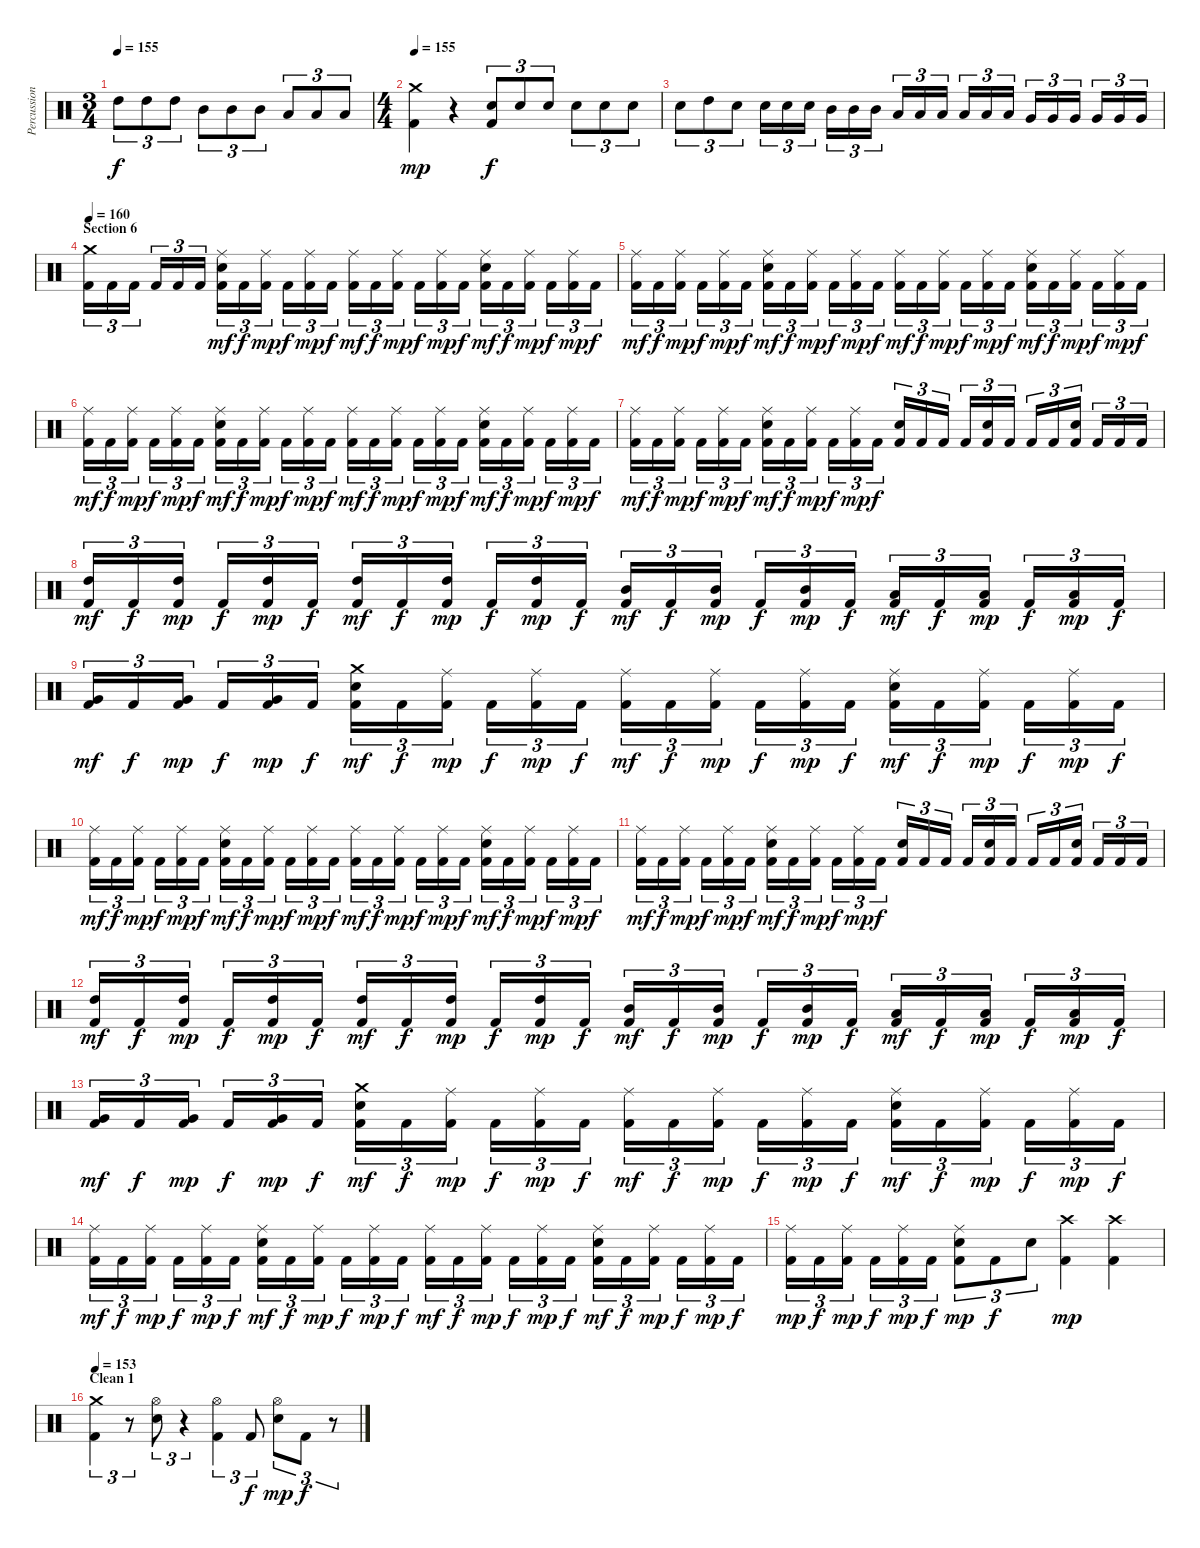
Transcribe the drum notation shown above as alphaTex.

\track ("Percussion" "Percussion") {instrument percussion}
\staff {score}
\articulation defaults
\ts (3 4)
\tempo 155
\clef neutral
\ks c "High Tom (hit)".8{tu (3 2) dy f} "High Tom (hit)".8{tu (3 2)} "High Tom (hit)".8{tu (3 2)} "Mid Tom (hit)".8{tu (3 2)} "Mid Tom (hit)".8{tu (3 2)} "Mid Tom (hit)".8{tu (3 2)} "Low Tom (hit)".8{tu (3 2)} "Low Tom (hit)".8{tu (3 2)} "Low Tom (hit)".8{tu (3 2)}
|
\ts (4 4)
\tempo 155
("Crash medium (hit)" "Kick (hit) 2").4{dy mp} r.4 ("Electric Snare (hit)" "Kick (hit) 2").8{tu (3 2) dy f} "Electric Snare (hit)".8{tu (3 2)} "Electric Snare (hit)".8{tu (3 2)} "Electric Snare (hit)".8{tu (3 2)} "Electric Snare (hit)".8{tu (3 2)} "Electric Snare (hit)".8{tu (3 2)} |
"Electric Snare (hit)".8{tu (3 2)} "High Tom (hit)".8{tu (3 2)} "Electric Snare (hit)".8{tu (3 2)} "Electric Snare (hit)".16{tu (3 2)} "Electric Snare (hit)".16{tu (3 2)} "Electric Snare (hit)".16{tu (3 2)} "Mid Tom (hit)".16{tu (3 2)} "Mid Tom (hit)".16{tu (3 2)} "Mid Tom (hit)".16{tu (3 2)} "Low Tom (hit)".16{tu (3 2)} "Low Tom (hit)".16{tu (3 2)} "Low Tom (hit)".16{tu (3 2)} "Low Tom (hit)".16{tu (3 2)} "Low Tom (hit)".16{tu (3 2)} "Low Tom (hit)".16{tu (3 2)} "Very Low Tom (hit)".16{tu (3 2)} "Very Low Tom (hit)".16{tu (3 2)} "Very Low Tom (hit)".16{tu (3 2)} "Very Low Tom (hit)".16{tu (3 2)} "Very Low Tom (hit)".16{tu (3 2)} "Very Low Tom (hit)".16{tu (3 2)} |
\section ("" "Section 6")
\tempo 160
("Crash medium (hit)" "Kick (hit) 2").16{tu (3 2)} "Kick (hit) 2".16{tu (3 2)} "Kick (hit) 2".16{tu (3 2)} "Kick (hit) 2".16{tu (3 2)} "Kick (hit) 2".16{tu (3 2)} "Kick (hit) 2".16{tu (3 2)} ("Ride (middle)" "Electric Snare (hit)" "Kick (hit) 2").16{tu (3 2) dy mf} "Kick (hit) 2".16{tu (3 2) dy f} ("Ride (middle)" "Kick (hit) 2").16{tu (3 2) dy mp} "Kick (hit) 2".16{tu (3 2) dy f} ("Ride (middle)" "Kick (hit) 2").16{tu (3 2) dy mp} "Kick (hit) 2".16{tu (3 2) dy f} ("Ride (middle)" "Kick (hit) 2").16{tu (3 2) dy mf} "Kick (hit) 2".16{tu (3 2) dy f} ("Ride (middle)" "Kick (hit) 2").16{tu (3 2) dy mp} "Kick (hit) 2".16{tu (3 2) dy f} ("Ride (middle)" "Kick (hit) 2").16{tu (3 2) dy mp} "Kick (hit) 2".16{tu (3 2) dy f} ("Ride (middle)" "Electric Snare (hit)" "Kick (hit) 2").16{tu (3 2) dy mf} "Kick (hit) 2".16{tu (3 2) dy f} ("Ride (middle)" "Kick (hit) 2").16{tu (3 2) dy mp} "Kick (hit) 2".16{tu (3 2) dy f} ("Ride (middle)" "Kick (hit) 2").16{tu (3 2) dy mp} "Kick (hit) 2".16{tu (3 2) dy f} |
("Ride (middle)" "Kick (hit) 2").16{tu (3 2) dy mf} "Kick (hit) 2".16{tu (3 2) dy f} ("Ride (middle)" "Kick (hit) 2").16{tu (3 2) dy mp} "Kick (hit) 2".16{tu (3 2) dy f} ("Ride (middle)" "Kick (hit) 2").16{tu (3 2) dy mp} "Kick (hit) 2".16{tu (3 2) dy f} ("Ride (middle)" "Electric Snare (hit)" "Kick (hit) 2").16{tu (3 2) dy mf} "Kick (hit) 2".16{tu (3 2) dy f} ("Ride (middle)" "Kick (hit) 2").16{tu (3 2) dy mp} "Kick (hit) 2".16{tu (3 2) dy f} ("Ride (middle)" "Kick (hit) 2").16{tu (3 2) dy mp} "Kick (hit) 2".16{tu (3 2) dy f} ("Ride (middle)" "Kick (hit) 2").16{tu (3 2) dy mf} "Kick (hit) 2".16{tu (3 2) dy f} ("Ride (middle)" "Kick (hit) 2").16{tu (3 2) dy mp} "Kick (hit) 2".16{tu (3 2) dy f} ("Ride (middle)" "Kick (hit) 2").16{tu (3 2) dy mp} "Kick (hit) 2".16{tu (3 2) dy f} ("Ride (middle)" "Electric Snare (hit)" "Kick (hit) 2").16{tu (3 2) dy mf} "Kick (hit) 2".16{tu (3 2) dy f} ("Ride (middle)" "Kick (hit) 2").16{tu (3 2) dy mp} "Kick (hit) 2".16{tu (3 2) dy f} ("Ride (middle)" "Kick (hit) 2").16{tu (3 2) dy mp} "Kick (hit) 2".16{tu (3 2) dy f} |
("Ride (middle)" "Kick (hit) 2").16{tu (3 2) dy mf} "Kick (hit) 2".16{tu (3 2) dy f} ("Ride (middle)" "Kick (hit) 2").16{tu (3 2) dy mp} "Kick (hit) 2".16{tu (3 2) dy f} ("Ride (middle)" "Kick (hit) 2").16{tu (3 2) dy mp} "Kick (hit) 2".16{tu (3 2) dy f} ("Ride (middle)" "Electric Snare (hit)" "Kick (hit) 2").16{tu (3 2) dy mf} "Kick (hit) 2".16{tu (3 2) dy f} ("Ride (middle)" "Kick (hit) 2").16{tu (3 2) dy mp} "Kick (hit) 2".16{tu (3 2) dy f} ("Ride (middle)" "Kick (hit) 2").16{tu (3 2) dy mp} "Kick (hit) 2".16{tu (3 2) dy f} ("Ride (middle)" "Kick (hit) 2").16{tu (3 2) dy mf} "Kick (hit) 2".16{tu (3 2) dy f} ("Ride (middle)" "Kick (hit) 2").16{tu (3 2) dy mp} "Kick (hit) 2".16{tu (3 2) dy f} ("Ride (middle)" "Kick (hit) 2").16{tu (3 2) dy mp} "Kick (hit) 2".16{tu (3 2) dy f} ("Ride (middle)" "Electric Snare (hit)" "Kick (hit) 2").16{tu (3 2) dy mf} "Kick (hit) 2".16{tu (3 2) dy f} ("Ride (middle)" "Kick (hit) 2").16{tu (3 2) dy mp} "Kick (hit) 2".16{tu (3 2) dy f} ("Ride (middle)" "Kick (hit) 2").16{tu (3 2) dy mp} "Kick (hit) 2".16{tu (3 2) dy f} |
("Ride (middle)" "Kick (hit) 2").16{tu (3 2) dy mf} "Kick (hit) 2".16{tu (3 2) dy f} ("Ride (middle)" "Kick (hit) 2").16{tu (3 2) dy mp} "Kick (hit) 2".16{tu (3 2) dy f} ("Ride (middle)" "Kick (hit) 2").16{tu (3 2) dy mp} "Kick (hit) 2".16{tu (3 2) dy f} ("Ride (middle)" "Electric Snare (hit)" "Kick (hit) 2").16{tu (3 2) dy mf} "Kick (hit) 2".16{tu (3 2) dy f} ("Ride (middle)" "Kick (hit) 2").16{tu (3 2) dy mp} "Kick (hit) 2".16{tu (3 2) dy f} ("Ride (middle)" "Kick (hit) 2").16{tu (3 2) dy mp} "Kick (hit) 2".16{tu (3 2) dy f} ("Electric Snare (hit)" "Kick (hit) 2").16{tu (3 2)} "Kick (hit) 2".16{tu (3 2)} "Kick (hit) 2".16{tu (3 2)} "Kick (hit) 2".16{tu (3 2)} ("Electric Snare (hit)" "Kick (hit) 2").16{tu (3 2)} "Kick (hit) 2".16{tu (3 2)} "Kick (hit) 2".16{tu (3 2)} "Kick (hit) 2".16{tu (3 2)} ("Electric Snare (hit)" "Kick (hit) 2").16{tu (3 2)} "Kick (hit) 2".16{tu (3 2)} "Kick (hit) 2".16{tu (3 2)} "Kick (hit) 2".16{tu (3 2)} |
("High Tom (hit)" "Kick (hit) 2").16{tu (3 2) dy mf} "Kick (hit) 2".16{tu (3 2) dy f} ("High Tom (hit)" "Kick (hit) 2").16{tu (3 2) dy mp} "Kick (hit) 2".16{tu (3 2) dy f} ("High Tom (hit)" "Kick (hit) 2").16{tu (3 2) dy mp} "Kick (hit) 2".16{tu (3 2) dy f} ("High Tom (hit)" "Kick (hit) 2").16{tu (3 2) dy mf} "Kick (hit) 2".16{tu (3 2) dy f} ("High Tom (hit)" "Kick (hit) 2").16{tu (3 2) dy mp} "Kick (hit) 2".16{tu (3 2) dy f} ("High Tom (hit)" "Kick (hit) 2").16{tu (3 2) dy mp} "Kick (hit) 2".16{tu (3 2) dy f} ("Mid Tom (hit)" "Kick (hit) 2").16{tu (3 2) dy mf} "Kick (hit) 2".16{tu (3 2) dy f} ("Mid Tom (hit)" "Kick (hit) 2").16{tu (3 2) dy mp} "Kick (hit) 2".16{tu (3 2) dy f} ("Mid Tom (hit)" "Kick (hit) 2").16{tu (3 2) dy mp} "Kick (hit) 2".16{tu (3 2) dy f} ("Low Tom (hit)" "Kick (hit) 2").16{tu (3 2) dy mf} "Kick (hit) 2".16{tu (3 2) dy f} ("Low Tom (hit)" "Kick (hit) 2").16{tu (3 2) dy mp} "Kick (hit) 2".16{tu (3 2) dy f} ("Low Tom (hit)" "Kick (hit) 2").16{tu (3 2) dy mp} "Kick (hit) 2".16{tu (3 2) dy f} |
("Very Low Tom (hit)" "Kick (hit) 2").16{tu (3 2) dy mf} "Kick (hit) 2".16{tu (3 2) dy f} ("Very Low Tom (hit)" "Kick (hit) 2").16{tu (3 2) dy mp} "Kick (hit) 2".16{tu (3 2) dy f} ("Very Low Tom (hit)" "Kick (hit) 2").16{tu (3 2) dy mp} "Kick (hit) 2".16{tu (3 2) dy f} ("Crash medium (hit)" "Electric Snare (hit)" "Kick (hit) 2").16{tu (3 2) dy mf} "Kick (hit) 2".16{tu (3 2) dy f} ("Ride (middle)" "Kick (hit) 2").16{tu (3 2) dy mp} "Kick (hit) 2".16{tu (3 2) dy f} ("Ride (middle)" "Kick (hit) 2").16{tu (3 2) dy mp} "Kick (hit) 2".16{tu (3 2) dy f} ("Ride (middle)" "Kick (hit) 2").16{tu (3 2) dy mf} "Kick (hit) 2".16{tu (3 2) dy f} ("Ride (middle)" "Kick (hit) 2").16{tu (3 2) dy mp} "Kick (hit) 2".16{tu (3 2) dy f} ("Ride (middle)" "Kick (hit) 2").16{tu (3 2) dy mp} "Kick (hit) 2".16{tu (3 2) dy f} ("Ride (middle)" "Electric Snare (hit)" "Kick (hit) 2").16{tu (3 2) dy mf} "Kick (hit) 2".16{tu (3 2) dy f} ("Ride (middle)" "Kick (hit) 2").16{tu (3 2) dy mp} "Kick (hit) 2".16{tu (3 2) dy f} ("Ride (middle)" "Kick (hit) 2").16{tu (3 2) dy mp} "Kick (hit) 2".16{tu (3 2) dy f} |
("Ride (middle)" "Kick (hit) 2").16{tu (3 2) dy mf} "Kick (hit) 2".16{tu (3 2) dy f} ("Ride (middle)" "Kick (hit) 2").16{tu (3 2) dy mp} "Kick (hit) 2".16{tu (3 2) dy f} ("Ride (middle)" "Kick (hit) 2").16{tu (3 2) dy mp} "Kick (hit) 2".16{tu (3 2) dy f} ("Ride (middle)" "Electric Snare (hit)" "Kick (hit) 2").16{tu (3 2) dy mf} "Kick (hit) 2".16{tu (3 2) dy f} ("Ride (middle)" "Kick (hit) 2").16{tu (3 2) dy mp} "Kick (hit) 2".16{tu (3 2) dy f} ("Ride (middle)" "Kick (hit) 2").16{tu (3 2) dy mp} "Kick (hit) 2".16{tu (3 2) dy f} ("Ride (middle)" "Kick (hit) 2").16{tu (3 2) dy mf} "Kick (hit) 2".16{tu (3 2) dy f} ("Ride (middle)" "Kick (hit) 2").16{tu (3 2) dy mp} "Kick (hit) 2".16{tu (3 2) dy f} ("Ride (middle)" "Kick (hit) 2").16{tu (3 2) dy mp} "Kick (hit) 2".16{tu (3 2) dy f} ("Ride (middle)" "Electric Snare (hit)" "Kick (hit) 2").16{tu (3 2) dy mf} "Kick (hit) 2".16{tu (3 2) dy f} ("Ride (middle)" "Kick (hit) 2").16{tu (3 2) dy mp} "Kick (hit) 2".16{tu (3 2) dy f} ("Ride (middle)" "Kick (hit) 2").16{tu (3 2) dy mp} "Kick (hit) 2".16{tu (3 2) dy f} |
("Ride (middle)" "Kick (hit) 2").16{tu (3 2) dy mf} "Kick (hit) 2".16{tu (3 2) dy f} ("Ride (middle)" "Kick (hit) 2").16{tu (3 2) dy mp} "Kick (hit) 2".16{tu (3 2) dy f} ("Ride (middle)" "Kick (hit) 2").16{tu (3 2) dy mp} "Kick (hit) 2".16{tu (3 2) dy f} ("Ride (middle)" "Electric Snare (hit)" "Kick (hit) 2").16{tu (3 2) dy mf} "Kick (hit) 2".16{tu (3 2) dy f} ("Ride (middle)" "Kick (hit) 2").16{tu (3 2) dy mp} "Kick (hit) 2".16{tu (3 2) dy f} ("Ride (middle)" "Kick (hit) 2").16{tu (3 2) dy mp} "Kick (hit) 2".16{tu (3 2) dy f} ("Electric Snare (hit)" "Kick (hit) 2").16{tu (3 2)} "Kick (hit) 2".16{tu (3 2)} "Kick (hit) 2".16{tu (3 2)} "Kick (hit) 2".16{tu (3 2)} ("Electric Snare (hit)" "Kick (hit) 2").16{tu (3 2)} "Kick (hit) 2".16{tu (3 2)} "Kick (hit) 2".16{tu (3 2)} "Kick (hit) 2".16{tu (3 2)} ("Electric Snare (hit)" "Kick (hit) 2").16{tu (3 2)} "Kick (hit) 2".16{tu (3 2)} "Kick (hit) 2".16{tu (3 2)} "Kick (hit) 2".16{tu (3 2)} |
("High Tom (hit)" "Kick (hit) 2").16{tu (3 2) dy mf} "Kick (hit) 2".16{tu (3 2) dy f} ("High Tom (hit)" "Kick (hit) 2").16{tu (3 2) dy mp} "Kick (hit) 2".16{tu (3 2) dy f} ("High Tom (hit)" "Kick (hit) 2").16{tu (3 2) dy mp} "Kick (hit) 2".16{tu (3 2) dy f} ("High Tom (hit)" "Kick (hit) 2").16{tu (3 2) dy mf} "Kick (hit) 2".16{tu (3 2) dy f} ("High Tom (hit)" "Kick (hit) 2").16{tu (3 2) dy mp} "Kick (hit) 2".16{tu (3 2) dy f} ("High Tom (hit)" "Kick (hit) 2").16{tu (3 2) dy mp} "Kick (hit) 2".16{tu (3 2) dy f} ("Mid Tom (hit)" "Kick (hit) 2").16{tu (3 2) dy mf} "Kick (hit) 2".16{tu (3 2) dy f} ("Mid Tom (hit)" "Kick (hit) 2").16{tu (3 2) dy mp} "Kick (hit) 2".16{tu (3 2) dy f} ("Mid Tom (hit)" "Kick (hit) 2").16{tu (3 2) dy mp} "Kick (hit) 2".16{tu (3 2) dy f} ("Low Tom (hit)" "Kick (hit) 2").16{tu (3 2) dy mf} "Kick (hit) 2".16{tu (3 2) dy f} ("Low Tom (hit)" "Kick (hit) 2").16{tu (3 2) dy mp} "Kick (hit) 2".16{tu (3 2) dy f} ("Low Tom (hit)" "Kick (hit) 2").16{tu (3 2) dy mp} "Kick (hit) 2".16{tu (3 2) dy f} |
("Very Low Tom (hit)" "Kick (hit) 2").16{tu (3 2) dy mf} "Kick (hit) 2".16{tu (3 2) dy f} ("Very Low Tom (hit)" "Kick (hit) 2").16{tu (3 2) dy mp} "Kick (hit) 2".16{tu (3 2) dy f} ("Very Low Tom (hit)" "Kick (hit) 2").16{tu (3 2) dy mp} "Kick (hit) 2".16{tu (3 2) dy f} ("Crash medium (hit)" "Electric Snare (hit)" "Kick (hit) 2").16{tu (3 2) dy mf} "Kick (hit) 2".16{tu (3 2) dy f} ("Ride (middle)" "Kick (hit) 2").16{tu (3 2) dy mp} "Kick (hit) 2".16{tu (3 2) dy f} ("Ride (middle)" "Kick (hit) 2").16{tu (3 2) dy mp} "Kick (hit) 2".16{tu (3 2) dy f} ("Ride (middle)" "Kick (hit) 2").16{tu (3 2) dy mf} "Kick (hit) 2".16{tu (3 2) dy f} ("Ride (middle)" "Kick (hit) 2").16{tu (3 2) dy mp} "Kick (hit) 2".16{tu (3 2) dy f} ("Ride (middle)" "Kick (hit) 2").16{tu (3 2) dy mp} "Kick (hit) 2".16{tu (3 2) dy f} ("Ride (middle)" "Electric Snare (hit)" "Kick (hit) 2").16{tu (3 2) dy mf} "Kick (hit) 2".16{tu (3 2) dy f} ("Ride (middle)" "Kick (hit) 2").16{tu (3 2) dy mp} "Kick (hit) 2".16{tu (3 2) dy f} ("Ride (middle)" "Kick (hit) 2").16{tu (3 2) dy mp} "Kick (hit) 2".16{tu (3 2) dy f} |
("Ride (middle)" "Kick (hit) 2").16{tu (3 2) dy mf} "Kick (hit) 2".16{tu (3 2) dy f} ("Ride (middle)" "Kick (hit) 2").16{tu (3 2) dy mp} "Kick (hit) 2".16{tu (3 2) dy f} ("Ride (middle)" "Kick (hit) 2").16{tu (3 2) dy mp} "Kick (hit) 2".16{tu (3 2) dy f} ("Ride (middle)" "Electric Snare (hit)" "Kick (hit) 2").16{tu (3 2) dy mf} "Kick (hit) 2".16{tu (3 2) dy f} ("Ride (middle)" "Kick (hit) 2").16{tu (3 2) dy mp} "Kick (hit) 2".16{tu (3 2) dy f} ("Ride (middle)" "Kick (hit) 2").16{tu (3 2) dy mp} "Kick (hit) 2".16{tu (3 2) dy f} ("Ride (middle)" "Kick (hit) 2").16{tu (3 2) dy mf} "Kick (hit) 2".16{tu (3 2) dy f} ("Ride (middle)" "Kick (hit) 2").16{tu (3 2) dy mp} "Kick (hit) 2".16{tu (3 2) dy f} ("Ride (middle)" "Kick (hit) 2").16{tu (3 2) dy mp} "Kick (hit) 2".16{tu (3 2) dy f} ("Ride (middle)" "Electric Snare (hit)" "Kick (hit) 2").16{tu (3 2) dy mf} "Kick (hit) 2".16{tu (3 2) dy f} ("Ride (middle)" "Kick (hit) 2").16{tu (3 2) dy mp} "Kick (hit) 2".16{tu (3 2) dy f} ("Ride (middle)" "Kick (hit) 2").16{tu (3 2) dy mp} "Kick (hit) 2".16{tu (3 2) dy f} |
("Ride (middle)" "Kick (hit) 2").16{tu (3 2) dy mp} "Kick (hit) 2".16{tu (3 2) dy f} ("Ride (middle)" "Kick (hit) 2").16{tu (3 2) dy mp} "Kick (hit) 2".16{tu (3 2) dy f} ("Ride (middle)" "Kick (hit) 2").16{tu (3 2) dy mp} "Kick (hit) 2".16{tu (3 2) dy f} ("Ride (middle)" "Electric Snare (hit)" "Kick (hit) 2").8{tu (3 2) dy mp} "Kick (hit) 2".8{tu (3 2) dy f} "Electric Snare (hit)".8{tu (3 2)} ("Crash high (hit)" "Kick (hit) 2").4{dy mp} ("Crash high (hit)" "Kick (hit) 2").4 |
\section ("" "Clean 1")
\tempo 153
("Crash medium (hit)" "Kick (hit) 2").4{tu (3 2)} r.8{tu (3 2)} ("Hi-Hat (open)" "Electric Snare (hit)").8{tu (3 2)} r.4{tu (3 2)} ("Hi-Hat (open)" "Kick (hit) 2").4{tu (3 2)} "Kick (hit) 2".8{tu (3 2) dy f} ("Hi-Hat (open)" "Electric Snare (hit)").8{tu (3 2) dy mp} "Kick (hit) 2".8{tu (3 2) dy f} r.8{tu (3 2)}
